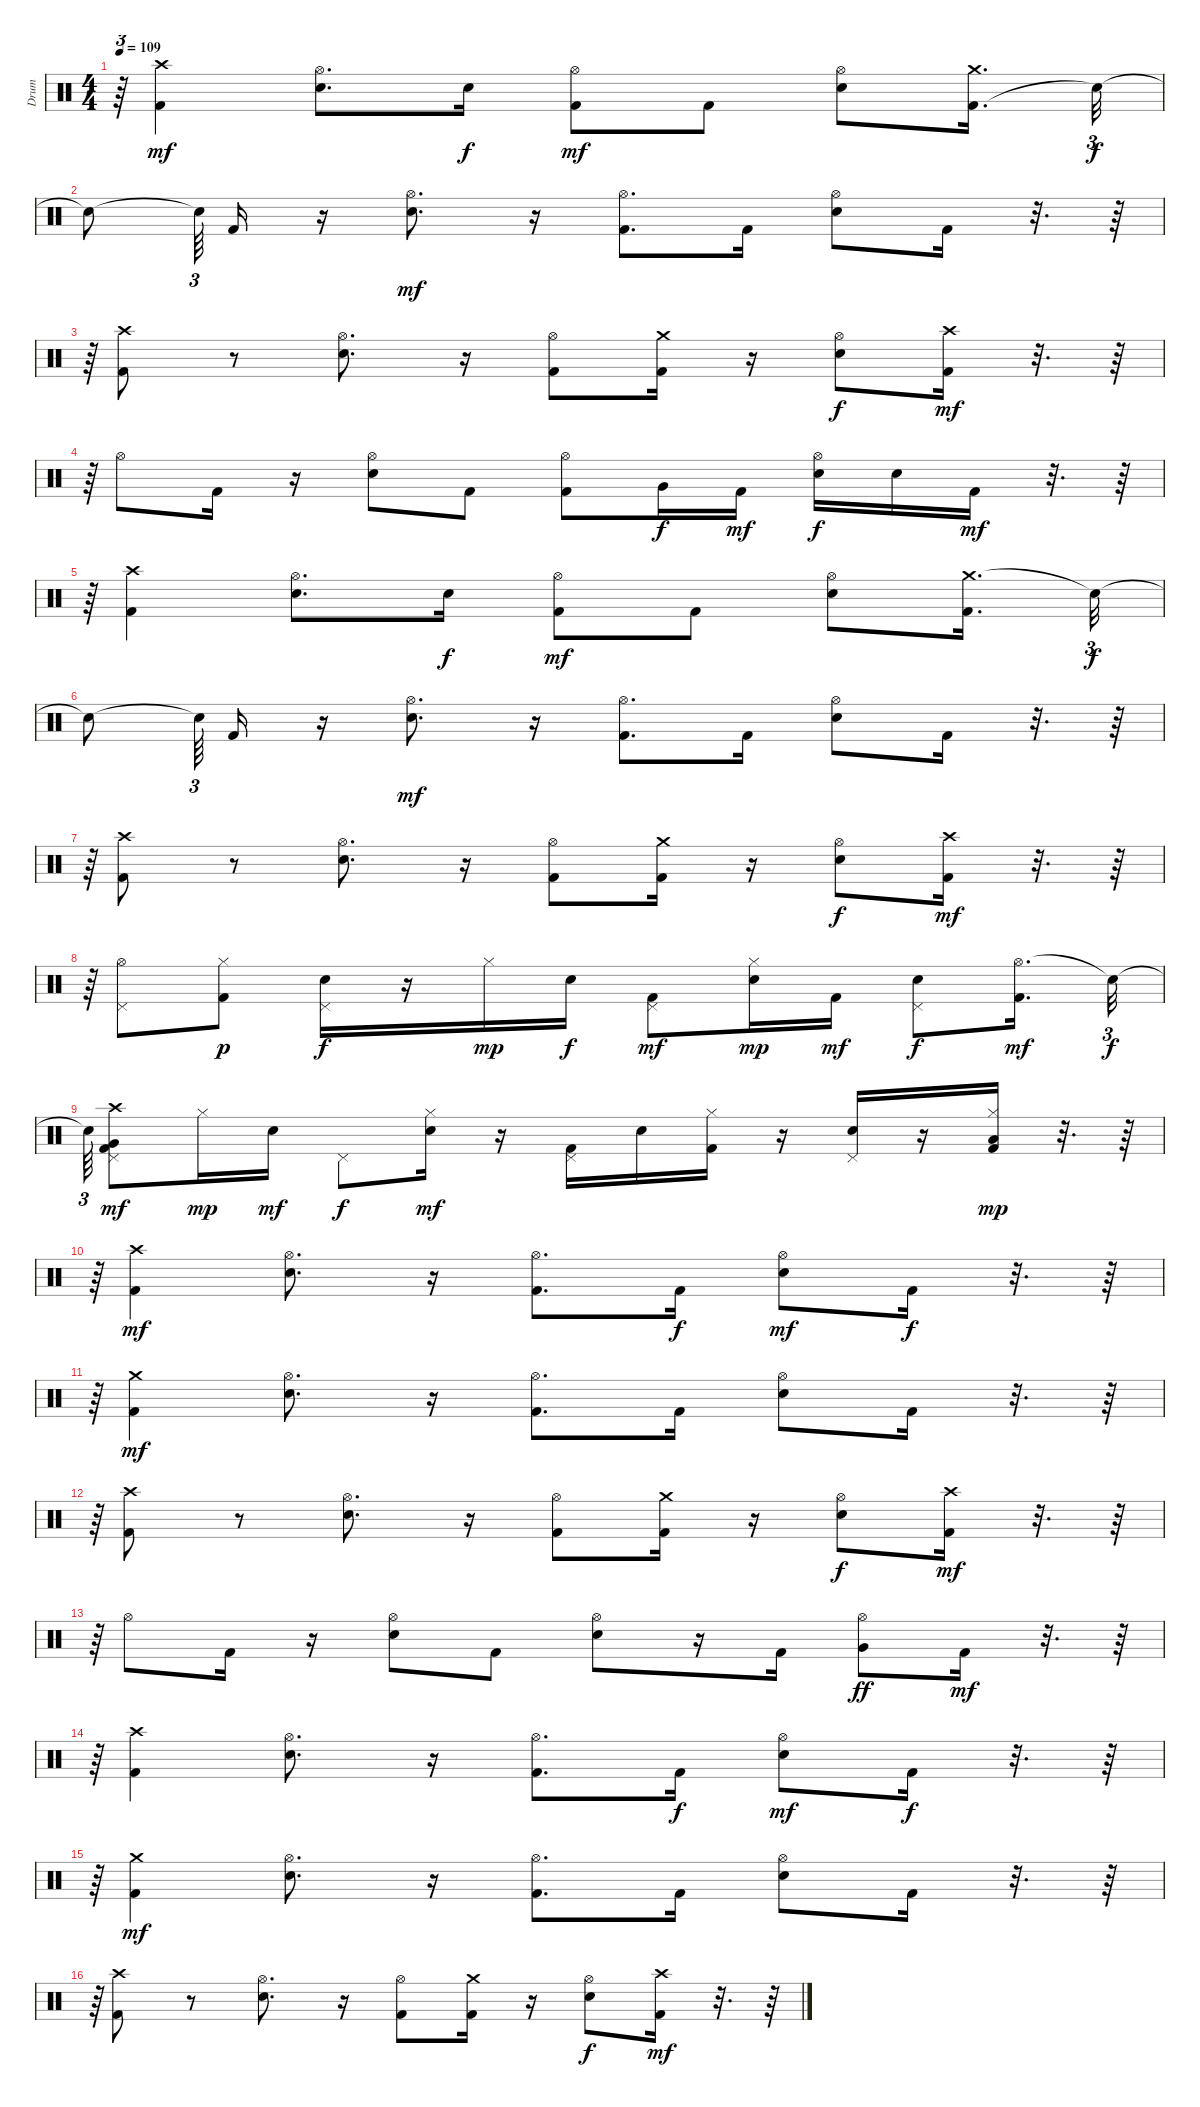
\track ("Drum" "Drum") {instrument percussion}
\staff {score}
\articulation defaults
\ts (4 4)
\tempo 109
\clef neutral
\ks c
r.64{tu (3 2) dy mf} ("Crash high (hit)" "Kick (hit) 2").4 ("Electric Snare (hit)" "Hi-Hat (open)").8{d} "Electric Snare (hit)".16{dy f} ("Kick (hit) 2" "Hi-Hat (open)").8{dy mf} "Kick (hit) 2".8 ("Electric Snare (hit)" "Hi-Hat (open)").8 ("Kick (hit) 2" "Crash medium (hit)").16{d} "Snare (hit)"{t}.32{tu (3 2) dy f} |
"Snare (hit)"{t}.8 "Snare (hit)"{t}.64{tu (3 2) beam splitsecondary} "Kick (hit) 2".16 r.16 ("Hi-Hat (open)" "Electric Snare (hit)").8{d dy mf} r.16 ("Hi-Hat (open)" "Kick (hit) 2").8{d} "Kick (hit) 2".16 ("Hi-Hat (open)" "Electric Snare (hit)").8 "Kick (hit) 2".16 r.32{d} r.64 |
r.64{tu (3 2)} ("Crash high (hit)" "Kick (hit) 2").8 r.8 ("Electric Snare (hit)" "Hi-Hat (open)").8{d} r.16 ("Kick (hit) 2" "Hi-Hat (open)").8 ("Kick (hit) 2" "Crash medium (hit)").16 r.16 ("Electric Snare (hit)" "Hi-Hat (open)").8{dy f} ("Kick (hit) 2" "Crash high (hit)").16{dy mf} r.32{d} r.64 |
r.64{tu (3 2)} "Hi-Hat (open)".8 "Kick (hit) 2".16 r.16 ("Electric Snare (hit)" "Hi-Hat (open)").8 "Kick (hit) 2".8 ("Kick (hit) 2" "Hi-Hat (open)").8 "Very Low Tom (hit)".16{dy f} "Kick (hit) 2".16{dy mf} ("Electric Snare (hit)" "Hi-Hat (open)").16{dy f} "Electric Snare (hit)".16 "Kick (hit) 2".16{dy mf} r.32{d} r.64 |
r.64{tu (3 2)} ("Crash high (hit)" "Kick (hit) 2").4 ("Hi-Hat (open)" "Electric Snare (hit)").8{d} "Electric Snare (hit)".16{dy f} ("Hi-Hat (open)" "Kick (hit) 2").8{dy mf} "Kick (hit) 2".8 ("Electric Snare (hit)" "Hi-Hat (open)").8 ("Crash medium (hit)" "Kick (hit) 2").16{d} "Snare (hit)"{t}.32{tu (3 2) dy f} |
"Snare (hit)"{t}.8 "Snare (hit)"{t}.64{tu (3 2) beam splitsecondary} "Kick (hit) 2".16 r.16 ("Electric Snare (hit)" "Hi-Hat (open)").8{d dy mf} r.16 ("Kick (hit) 2" "Hi-Hat (open)").8{d} "Kick (hit) 2".16 ("Electric Snare (hit)" "Hi-Hat (open)").8 "Kick (hit) 2".16 r.32{d} r.64 |
r.64{tu (3 2)} ("Kick (hit) 2" "Crash high (hit)").8 r.8 ("Hi-Hat (open)" "Electric Snare (hit)").8{d} r.16 ("Hi-Hat (open)" "Kick (hit) 2").8 ("Crash medium (hit)" "Kick (hit) 2").16 r.16 ("Electric Snare (hit)" "Hi-Hat (open)").8{dy f} ("Crash high (hit)" "Kick (hit) 2").16{dy mf} r.32{d} r.64 |
r.64{tu (3 2)} ("Hi-Hat (open)" "Pedal Hi-Hat (hit)").8 ("Kick (hit) 2" "Hi-Hat (closed)").8{dy p} ("Electric Snare (hit)" "Pedal Hi-Hat (hit)").16{dy f} r.16 "Hi-Hat (closed)".16{dy mp} "Electric Snare (hit)".16{dy f} ("Pedal Hi-Hat (hit)" "Kick (hit) 2").8{dy mf} ("Hi-Hat (closed)" "Electric Snare (hit)").16{dy mp} "Kick (hit) 2".16{dy mf} ("Electric Snare (hit)" "Pedal Hi-Hat (hit)").8{dy f} ("Hi-Hat (open)" "Kick (hit) 2").16{d dy mf} "Snare (hit)"{t}.32{tu (3 2) dy f} |
"Snare (hit)"{t}.64{tu (3 2)} ("Very Low Tom (hit)" "Kick (hit) 2" "Pedal Hi-Hat (hit)" "Crash high (hit)").8{dy mf} "Hi-Hat (closed)".16{dy mp} "Electric Snare (hit)".16{dy mf} "Pedal Hi-Hat (hit)".8{dy f} ("Hi-Hat (closed)" "Electric Snare (hit)").16{dy mf} r.16 ("Pedal Hi-Hat (hit)" "Kick (hit) 2").16 "Electric Snare (hit)".16 ("Hi-Hat (closed)" "Kick (hit) 2").16 r.16 ("Electric Snare (hit)" "Pedal Hi-Hat (hit)").16 r.16 ("Low Tom (hit)" "Kick (hit) 2" "Hi-Hat (closed)").16{dy mp} r.32{d} r.64 |
r.64{tu (3 2)} ("Kick (hit) 2" "Crash high (hit)").4{dy mf} ("Hi-Hat (open)" "Electric Snare (hit)").8{d} r.16 ("Kick (hit) 2" "Hi-Hat (open)").8{d} "Kick (hit) 2".16{dy f} ("Electric Snare (hit)" "Hi-Hat (open)").8{dy mf} "Kick (hit) 2".16{dy f} r.32{d} r.64 |
r.64{tu (3 2)} ("Kick (hit) 2" "Crash medium (hit)").4{dy mf} ("Electric Snare (hit)" "Hi-Hat (open)").8{d} r.16 ("Kick (hit) 2" "Hi-Hat (open)").8{d} "Kick (hit) 2".16 ("Hi-Hat (open)" "Electric Snare (hit)").8 "Kick (hit) 2".16 r.32{d} r.64 |
r.64{tu (3 2)} ("Kick (hit) 2" "Crash high (hit)").8 r.8 ("Electric Snare (hit)" "Hi-Hat (open)").8{d} r.16 ("Kick (hit) 2" "Hi-Hat (open)").8 ("Kick (hit) 2" "Crash medium (hit)").16 r.16 ("Hi-Hat (open)" "Electric Snare (hit)").8{dy f} ("Crash high (hit)" "Kick (hit) 2").16{dy mf} r.32{d} r.64 |
r.64{tu (3 2)} "Hi-Hat (open)".8 "Kick (hit) 2".16 r.16 ("Hi-Hat (open)" "Electric Snare (hit)").8 "Kick (hit) 2".8 ("Electric Snare (hit)" "Hi-Hat (open)").8 r.16 "Kick (hit) 2".16 ("Hi-Hat (open)" "Very Low Tom (hit)").8{dy ff} "Kick (hit) 2".16{dy mf} r.32{d} r.64 |
r.64{tu (3 2)} ("Kick (hit) 2" "Crash high (hit)").4 ("Hi-Hat (open)" "Electric Snare (hit)").8{d} r.16 ("Hi-Hat (open)" "Kick (hit) 2").8{d} "Kick (hit) 2".16{dy f} ("Electric Snare (hit)" "Hi-Hat (open)").8{dy mf} "Kick (hit) 2".16{dy f} r.32{d} r.64 |
r.64{tu (3 2)} ("Kick (hit) 2" "Crash medium (hit)").4{dy mf} ("Electric Snare (hit)" "Hi-Hat (open)").8{d} r.16 ("Kick (hit) 2" "Hi-Hat (open)").8{d} "Kick (hit) 2".16 ("Electric Snare (hit)" "Hi-Hat (open)").8 "Kick (hit) 2".16 r.32{d} r.64 |
r.64{tu (3 2)} ("Crash high (hit)" "Kick (hit) 2").8 r.8 ("Hi-Hat (open)" "Electric Snare (hit)").8{d} r.16 ("Hi-Hat (open)" "Kick (hit) 2").8 ("Kick (hit) 2" "Crash medium (hit)").16 r.16 ("Electric Snare (hit)" "Hi-Hat (open)").8{dy f} ("Kick (hit) 2" "Crash high (hit)").16{dy mf} r.32{d} r.64
